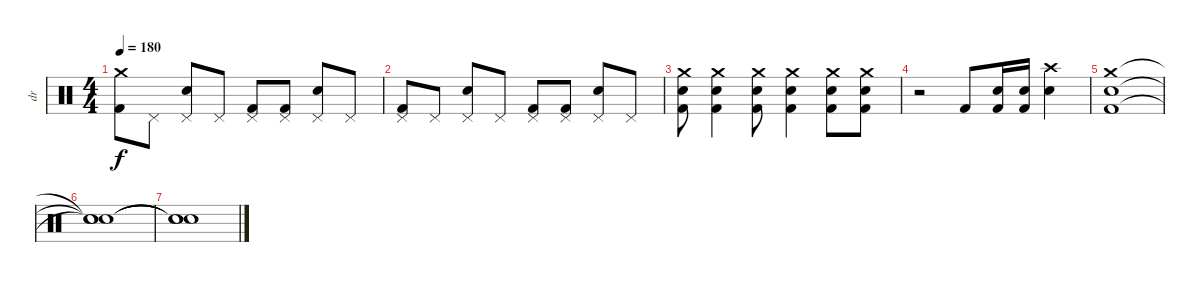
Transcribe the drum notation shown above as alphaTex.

\track ("dr" "dr") {instrument percussion}
\staff {score}
\articulation defaults
\ts (4 4)
\tempo 180
\clef neutral
\ks c
("Crash medium (hit)" "Kick (hit) 2").8{dy f} "Pedal Hi-Hat (hit)".8 ("Pedal Hi-Hat (hit)" "Electric Snare (hit)").8 "Pedal Hi-Hat (hit)".8 ("Pedal Hi-Hat (hit)" "Kick (hit) 2").8 ("Pedal Hi-Hat (hit)" "Kick (hit) 2").8 ("Pedal Hi-Hat (hit)" "Electric Snare (hit)").8 "Pedal Hi-Hat (hit)".8 |
("Pedal Hi-Hat (hit)" "Kick (hit) 2").8 "Pedal Hi-Hat (hit)".8 ("Pedal Hi-Hat (hit)" "Electric Snare (hit)").8 "Pedal Hi-Hat (hit)".8 ("Pedal Hi-Hat (hit)" "Kick (hit) 2").8 ("Pedal Hi-Hat (hit)" "Kick (hit) 2").8 ("Pedal Hi-Hat (hit)" "Electric Snare (hit)").8 "Pedal Hi-Hat (hit)".8 |
("Crash medium (hit)" "Electric Snare (hit)" "Kick (hit) 2").8 ("Crash medium (hit)" "Electric Snare (hit)" "Kick (hit) 2").4 ("Crash medium (hit)" "Electric Snare (hit)" "Kick (hit) 2").8 ("Crash medium (hit)" "Electric Snare (hit)" "Kick (hit) 2").4 ("Crash medium (hit)" "Electric Snare (hit)" "Kick (hit) 2").8 ("Crash medium (hit)" "Electric Snare (hit)" "Kick (hit) 2").8 |
r.2 "Kick (hit) 2".8 ("Electric Snare (hit)" "Kick (hit) 2").16 ("Electric Snare (hit)" "Kick (hit) 2").16 ("Crash high (hit)" "Electric Snare (hit)").4 |
("Crash medium (hit)" "Electric Snare (hit)" "Kick (hit) 2").1 |
("Snare (hit)"{t} "Snare (hit)"{t} "Snare (hit)"{t}).1 |
("Snare (hit)"{t} "Snare (hit)"{t} "Snare (hit)"{t}).1
